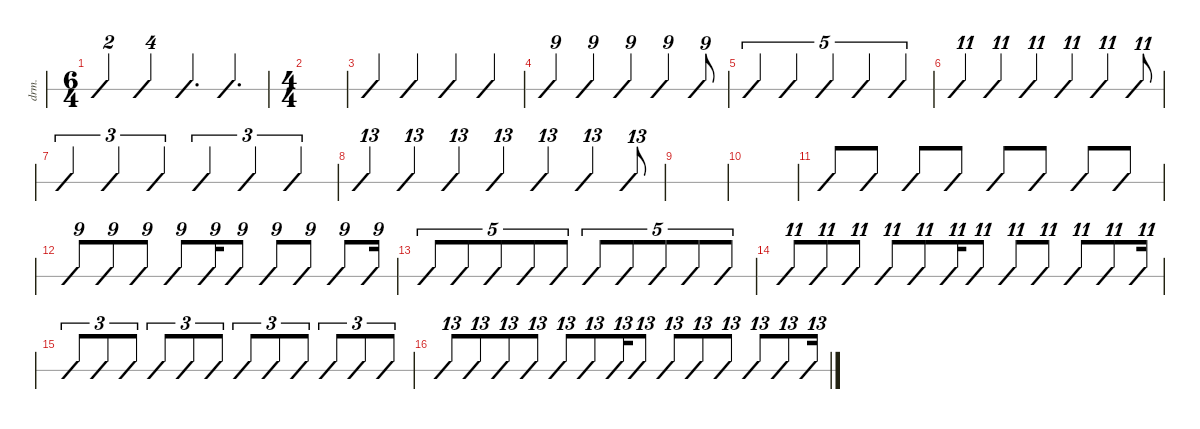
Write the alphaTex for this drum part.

\defaultSystemsLayout 4
\hideDynamics
\bracketExtendMode nobrackets
\otherSystemsTrackNameOrientation horizontal
\track ("Drumkit" "drm.") {defaultSystemsLayout 8 instrument percussion}
\staff {slash}
\articulation defaults
\ts (6 4)
\beaming (8 6 6)
\tempo (120 hide)
\clef neutral
\scale
1.11305
\ks c "Kick (hit) 2".4{tu (2 3) dy mf} "Kick (hit) 2".4{tu (4 6)} "Kick (hit) 2".4{d} "Kick (hit) 2".4{d}
|
\ts (4 4)
\beaming (8 2 2 2 2)
\scale
1.11305 |
\scale
0.962316 "Kick (hit) 2".4 "Kick (hit) 2".4 "Kick (hit) 2".4 "Kick (hit) 2".4 |
\scale
0.962316 "Kick (hit) 2".4{tu (9 8)} "Kick (hit) 2".4{tu (9 8)} "Kick (hit) 2".4{tu (9 8)} "Kick (hit) 2".4{tu (9 8)} "Kick (hit) 2".8{tu (9 8)} |
\scale
0.962316 "Kick (hit) 2".4{tu (5 4)} "Kick (hit) 2".4{tu (5 4)} "Kick (hit) 2".4{tu (5 4)} "Kick (hit) 2".4{tu (5 4)} "Kick (hit) 2".4{tu (5 4)} |
\scale
0.962316 "Kick (hit) 2".4{tu (11 8)} "Kick (hit) 2".4{tu (11 8)} "Kick (hit) 2".4{tu (11 8)} "Kick (hit) 2".4{tu (11 8)} "Kick (hit) 2".4{tu (11 8)} "Kick (hit) 2".8{tu (11 8)} |
\scale
0.962316 "Kick (hit) 2".4{tu (3 2)} "Kick (hit) 2".4{tu (3 2)} "Kick (hit) 2".4{tu (3 2)} "Kick (hit) 2".4{tu (3 2)} "Kick (hit) 2".4{tu (3 2)} "Kick (hit) 2".4{tu (3 2)} |
\scale
0.962316 "Kick (hit) 2".4{tu (13 8)} "Kick (hit) 2".4{tu (13 8)} "Kick (hit) 2".4{tu (13 8)} "Kick (hit) 2".4{tu (13 8)} "Kick (hit) 2".4{tu (13 8)} "Kick (hit) 2".4{tu (13 8)} "Kick (hit) 2".8{tu (13 8)} |
|
|
"Kick (hit) 2".8 "Kick (hit) 2".8 "Kick (hit) 2".8 "Kick (hit) 2".8 "Kick (hit) 2".8 "Kick (hit) 2".8 "Kick (hit) 2".8 "Kick (hit) 2".8 |
"Kick (hit) 2".8{tu (9 8)} "Kick (hit) 2".8{tu (9 8)} "Kick (hit) 2".8{tu (9 8)} "Kick (hit) 2".8{tu (9 8)} "Kick (hit) 2".16{tu (9 8)} "Kick (hit) 2".8{tu (9 8)} "Kick (hit) 2".8{tu (9 8)} "Kick (hit) 2".8{tu (9 8)} "Kick (hit) 2".8{tu (9 8)} "Kick (hit) 2".16{tu (9 8)} |
"Kick (hit) 2".8{tu (5 4)} "Kick (hit) 2".8{tu (5 4)} "Kick (hit) 2".8{tu (5 4)} "Kick (hit) 2".8{tu (5 4)} "Kick (hit) 2".8{tu (5 4)} "Kick (hit) 2".8{tu (5 4)} "Kick (hit) 2".8{tu (5 4)} "Kick (hit) 2".8{tu (5 4)} "Kick (hit) 2".8{tu (5 4)} "Kick (hit) 2".8{tu (5 4)} |
"Kick (hit) 2".8{tu (11 8)} "Kick (hit) 2".8{tu (11 8)} "Kick (hit) 2".8{tu (11 8)} "Kick (hit) 2".8{tu (11 8)} "Kick (hit) 2".8{tu (11 8)} "Kick (hit) 2".16{tu (11 8)} "Kick (hit) 2".8{tu (11 8)} "Kick (hit) 2".8{tu (11 8)} "Kick (hit) 2".8{tu (11 8)} "Kick (hit) 2".8{tu (11 8)} "Kick (hit) 2".8{tu (11 8)} "Kick (hit) 2".16{tu (11 8)} |
"Kick (hit) 2".8{tu (3 2)} "Kick (hit) 2".8{tu (3 2)} "Kick (hit) 2".8{tu (3 2)} "Kick (hit) 2".8{tu (3 2)} "Kick (hit) 2".8{tu (3 2)} "Kick (hit) 2".8{tu (3 2)} "Kick (hit) 2".8{tu (3 2)} "Kick (hit) 2".8{tu (3 2)} "Kick (hit) 2".8{tu (3 2)} "Kick (hit) 2".8{tu (3 2)} "Kick (hit) 2".8{tu (3 2)} "Kick (hit) 2".8{tu (3 2)} |
"Kick (hit) 2".8{tu (13 8)} "Kick (hit) 2".8{tu (13 8)} "Kick (hit) 2".8{tu (13 8)} "Kick (hit) 2".8{tu (13 8)} "Kick (hit) 2".8{tu (13 8)} "Kick (hit) 2".8{tu (13 8)} "Kick (hit) 2".16{tu (13 8)} "Kick (hit) 2".8{tu (13 8)} "Kick (hit) 2".8{tu (13 8)} "Kick (hit) 2".8{tu (13 8)} "Kick (hit) 2".8{tu (13 8)} "Kick (hit) 2".8{tu (13 8)} "Kick (hit) 2".8{tu (13 8)} "Kick (hit) 2".16{tu (13 8)}
